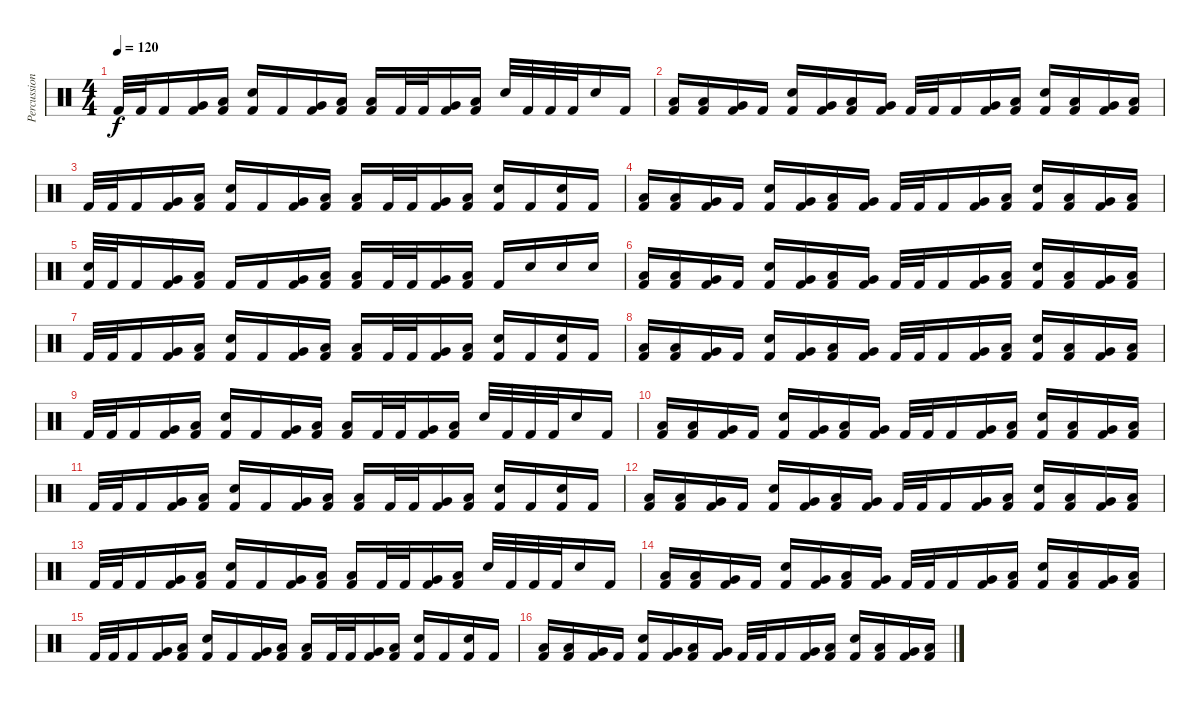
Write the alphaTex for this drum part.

\track ("Percussion" "Percussion") {instrument percussion}
\staff {score}
\articulation defaults
\ts (4 4)
\tempo 120
\clef neutral
\ks c "Kick (hit) 2".32{dy f} "Kick (hit) 2".32 "Kick (hit) 2".16
("Very Low Tom (hit)" "Kick (hit) 2").16 ("Low Floor Tom (hit)" "Kick (hit) 2").16 ("Electric Snare (hit)" "Kick (hit) 2").16 "Kick (hit) 2".16 ("Very Low Tom (hit)" "Kick (hit) 2").16 ("Low Tom (hit)" "Kick (hit) 2").16 ("Low Floor Tom (hit)" "Kick (hit) 2").16 "Kick (hit) 2".32 "Kick (hit) 2".32 ("Very Low Tom (hit)" "Kick (hit) 2").16 ("Low Floor Tom (hit)" "Kick (hit) 2").16 "Electric Snare (hit)".32 "Kick (hit) 2".32 "Kick (hit) 2".32 "Kick (hit) 2".32 "Electric Snare (hit)".16 "Kick (hit) 2".16 |
("Low Tom (hit)" "Kick (hit) 2").16 ("Low Floor Tom (hit)" "Kick (hit) 2").16 ("Very Low Tom (hit)" "Kick (hit) 2").16 "Kick (hit) 2".16 ("Electric Snare (hit)" "Kick (hit) 2").16 ("Very Low Tom (hit)" "Kick (hit) 2").16 ("Low Tom (hit)" "Kick (hit) 2").16 ("Very Low Tom (hit)" "Kick (hit) 2").16 "Kick (hit) 2".32 "Kick (hit) 2".32 "Kick (hit) 2".16 ("Very Low Tom (hit)" "Kick (hit) 2").16 ("Low Floor Tom (hit)" "Kick (hit) 2").16 ("Electric Snare (hit)" "Kick (hit) 2").16 ("Low Floor Tom (hit)" "Kick (hit) 2").16 ("Very Low Tom (hit)" "Kick (hit) 2").16 ("Low Floor Tom (hit)" "Kick (hit) 2").16 |
"Kick (hit) 2".32 "Kick (hit) 2".32 "Kick (hit) 2".16 ("Very Low Tom (hit)" "Kick (hit) 2").16 ("Low Floor Tom (hit)" "Kick (hit) 2").16 ("Electric Snare (hit)" "Kick (hit) 2").16 "Kick (hit) 2".16 ("Very Low Tom (hit)" "Kick (hit) 2").16 ("Low Tom (hit)" "Kick (hit) 2").16 ("Low Floor Tom (hit)" "Kick (hit) 2").16 "Kick (hit) 2".32 "Kick (hit) 2".32 ("Very Low Tom (hit)" "Kick (hit) 2").16 ("Low Floor Tom (hit)" "Kick (hit) 2").16 ("Electric Snare (hit)" "Kick (hit) 2").16 "Kick (hit) 2".16 ("Electric Snare (hit)" "Kick (hit) 2").16 "Kick (hit) 2".16 |
("Low Tom (hit)" "Kick (hit) 2").16 ("Low Floor Tom (hit)" "Kick (hit) 2").16 ("Very Low Tom (hit)" "Kick (hit) 2").16 "Kick (hit) 2".16 ("Electric Snare (hit)" "Kick (hit) 2").16 ("Very Low Tom (hit)" "Kick (hit) 2").16 ("Low Tom (hit)" "Kick (hit) 2").16 ("Very Low Tom (hit)" "Kick (hit) 2").16 "Kick (hit) 2".32 "Kick (hit) 2".32 "Kick (hit) 2".16 ("Very Low Tom (hit)" "Kick (hit) 2").16 ("Low Floor Tom (hit)" "Kick (hit) 2").16 ("Electric Snare (hit)" "Kick (hit) 2").16 ("Low Floor Tom (hit)" "Kick (hit) 2").16 ("Very Low Tom (hit)" "Kick (hit) 2").16 ("Low Floor Tom (hit)" "Kick (hit) 2").16 |
("Electric Snare (hit)" "Kick (hit) 2").32 "Kick (hit) 2".32 "Kick (hit) 2".16 ("Very Low Tom (hit)" "Kick (hit) 2").16 ("Low Floor Tom (hit)" "Kick (hit) 2").16 "Kick (hit) 2".16 "Kick (hit) 2".16 ("Very Low Tom (hit)" "Kick (hit) 2").16 ("Low Tom (hit)" "Kick (hit) 2").16 ("Low Floor Tom (hit)" "Kick (hit) 2").16 "Kick (hit) 2".32 "Kick (hit) 2".32 ("Very Low Tom (hit)" "Kick (hit) 2").16 ("Low Floor Tom (hit)" "Kick (hit) 2").16 "Kick (hit) 2".16 "Electric Snare (hit)".16 "Electric Snare (hit)".16 "Electric Snare (hit)".16 |
("Low Tom (hit)" "Kick (hit) 2").16 ("Low Floor Tom (hit)" "Kick (hit) 2").16 ("Very Low Tom (hit)" "Kick (hit) 2").16 "Kick (hit) 2".16 ("Electric Snare (hit)" "Kick (hit) 2").16 ("Very Low Tom (hit)" "Kick (hit) 2").16 ("Low Tom (hit)" "Kick (hit) 2").16 ("Very Low Tom (hit)" "Kick (hit) 2").16 "Kick (hit) 2".32 "Kick (hit) 2".32 "Kick (hit) 2".16 ("Very Low Tom (hit)" "Kick (hit) 2").16 ("Low Floor Tom (hit)" "Kick (hit) 2").16 ("Electric Snare (hit)" "Kick (hit) 2").16 ("Low Floor Tom (hit)" "Kick (hit) 2").16 ("Very Low Tom (hit)" "Kick (hit) 2").16 ("Low Floor Tom (hit)" "Kick (hit) 2").16 |
"Kick (hit) 2".32 "Kick (hit) 2".32 "Kick (hit) 2".16 ("Very Low Tom (hit)" "Kick (hit) 2").16 ("Low Floor Tom (hit)" "Kick (hit) 2").16 ("Electric Snare (hit)" "Kick (hit) 2").16 "Kick (hit) 2".16 ("Very Low Tom (hit)" "Kick (hit) 2").16 ("Low Tom (hit)" "Kick (hit) 2").16 ("Low Floor Tom (hit)" "Kick (hit) 2").16 "Kick (hit) 2".32 "Kick (hit) 2".32 ("Very Low Tom (hit)" "Kick (hit) 2").16 ("Low Floor Tom (hit)" "Kick (hit) 2").16 ("Electric Snare (hit)" "Kick (hit) 2").16 "Kick (hit) 2".16 ("Electric Snare (hit)" "Kick (hit) 2").16 "Kick (hit) 2".16 |
("Low Tom (hit)" "Kick (hit) 2").16 ("Low Floor Tom (hit)" "Kick (hit) 2").16 ("Very Low Tom (hit)" "Kick (hit) 2").16 "Kick (hit) 2".16 ("Electric Snare (hit)" "Kick (hit) 2").16 ("Very Low Tom (hit)" "Kick (hit) 2").16 ("Low Tom (hit)" "Kick (hit) 2").16 ("Very Low Tom (hit)" "Kick (hit) 2").16 "Kick (hit) 2".32 "Kick (hit) 2".32 "Kick (hit) 2".16 ("Very Low Tom (hit)" "Kick (hit) 2").16 ("Low Floor Tom (hit)" "Kick (hit) 2").16 ("Electric Snare (hit)" "Kick (hit) 2").16 ("Low Floor Tom (hit)" "Kick (hit) 2").16 ("Very Low Tom (hit)" "Kick (hit) 2").16 ("Low Floor Tom (hit)" "Kick (hit) 2").16 |
"Kick (hit) 2".32 "Kick (hit) 2".32 "Kick (hit) 2".16 ("Very Low Tom (hit)" "Kick (hit) 2").16 ("Low Floor Tom (hit)" "Kick (hit) 2").16 ("Electric Snare (hit)" "Kick (hit) 2").16 "Kick (hit) 2".16 ("Very Low Tom (hit)" "Kick (hit) 2").16 ("Low Tom (hit)" "Kick (hit) 2").16 ("Low Floor Tom (hit)" "Kick (hit) 2").16 "Kick (hit) 2".32 "Kick (hit) 2".32 ("Very Low Tom (hit)" "Kick (hit) 2").16 ("Low Floor Tom (hit)" "Kick (hit) 2").16 "Electric Snare (hit)".32 "Kick (hit) 2".32 "Kick (hit) 2".32 "Kick (hit) 2".32 "Electric Snare (hit)".16 "Kick (hit) 2".16 |
("Low Tom (hit)" "Kick (hit) 2").16 ("Low Floor Tom (hit)" "Kick (hit) 2").16 ("Very Low Tom (hit)" "Kick (hit) 2").16 "Kick (hit) 2".16 ("Electric Snare (hit)" "Kick (hit) 2").16 ("Very Low Tom (hit)" "Kick (hit) 2").16 ("Low Tom (hit)" "Kick (hit) 2").16 ("Very Low Tom (hit)" "Kick (hit) 2").16 "Kick (hit) 2".32 "Kick (hit) 2".32 "Kick (hit) 2".16 ("Very Low Tom (hit)" "Kick (hit) 2").16 ("Low Floor Tom (hit)" "Kick (hit) 2").16 ("Electric Snare (hit)" "Kick (hit) 2").16 ("Low Floor Tom (hit)" "Kick (hit) 2").16 ("Very Low Tom (hit)" "Kick (hit) 2").16 ("Low Floor Tom (hit)" "Kick (hit) 2").16 |
"Kick (hit) 2".32 "Kick (hit) 2".32 "Kick (hit) 2".16 ("Very Low Tom (hit)" "Kick (hit) 2").16 ("Low Floor Tom (hit)" "Kick (hit) 2").16 ("Electric Snare (hit)" "Kick (hit) 2").16 "Kick (hit) 2".16 ("Very Low Tom (hit)" "Kick (hit) 2").16 ("Low Tom (hit)" "Kick (hit) 2").16 ("Low Floor Tom (hit)" "Kick (hit) 2").16 "Kick (hit) 2".32 "Kick (hit) 2".32 ("Very Low Tom (hit)" "Kick (hit) 2").16 ("Low Floor Tom (hit)" "Kick (hit) 2").16 ("Electric Snare (hit)" "Kick (hit) 2").16 "Kick (hit) 2".16 ("Electric Snare (hit)" "Kick (hit) 2").16 "Kick (hit) 2".16 |
("Low Tom (hit)" "Kick (hit) 2").16 ("Low Floor Tom (hit)" "Kick (hit) 2").16 ("Very Low Tom (hit)" "Kick (hit) 2").16 "Kick (hit) 2".16 ("Electric Snare (hit)" "Kick (hit) 2").16 ("Very Low Tom (hit)" "Kick (hit) 2").16 ("Low Tom (hit)" "Kick (hit) 2").16 ("Very Low Tom (hit)" "Kick (hit) 2").16 "Kick (hit) 2".32 "Kick (hit) 2".32 "Kick (hit) 2".16 ("Very Low Tom (hit)" "Kick (hit) 2").16 ("Low Floor Tom (hit)" "Kick (hit) 2").16 ("Electric Snare (hit)" "Kick (hit) 2").16 ("Low Floor Tom (hit)" "Kick (hit) 2").16 ("Very Low Tom (hit)" "Kick (hit) 2").16 ("Low Floor Tom (hit)" "Kick (hit) 2").16 |
"Kick (hit) 2".32 "Kick (hit) 2".32 "Kick (hit) 2".16 ("Very Low Tom (hit)" "Kick (hit) 2").16 ("Low Floor Tom (hit)" "Kick (hit) 2").16 ("Electric Snare (hit)" "Kick (hit) 2").16 "Kick (hit) 2".16 ("Very Low Tom (hit)" "Kick (hit) 2").16 ("Low Tom (hit)" "Kick (hit) 2").16 ("Low Floor Tom (hit)" "Kick (hit) 2").16 "Kick (hit) 2".32 "Kick (hit) 2".32 ("Very Low Tom (hit)" "Kick (hit) 2").16 ("Low Floor Tom (hit)" "Kick (hit) 2").16 "Electric Snare (hit)".32 "Kick (hit) 2".32 "Kick (hit) 2".32 "Kick (hit) 2".32 "Electric Snare (hit)".16 "Kick (hit) 2".16 |
("Low Tom (hit)" "Kick (hit) 2").16 ("Low Floor Tom (hit)" "Kick (hit) 2").16 ("Very Low Tom (hit)" "Kick (hit) 2").16 "Kick (hit) 2".16 ("Electric Snare (hit)" "Kick (hit) 2").16 ("Very Low Tom (hit)" "Kick (hit) 2").16 ("Low Tom (hit)" "Kick (hit) 2").16 ("Very Low Tom (hit)" "Kick (hit) 2").16 "Kick (hit) 2".32 "Kick (hit) 2".32 "Kick (hit) 2".16 ("Very Low Tom (hit)" "Kick (hit) 2").16 ("Low Floor Tom (hit)" "Kick (hit) 2").16 ("Electric Snare (hit)" "Kick (hit) 2").16 ("Low Floor Tom (hit)" "Kick (hit) 2").16 ("Very Low Tom (hit)" "Kick (hit) 2").16 ("Low Floor Tom (hit)" "Kick (hit) 2").16 |
"Kick (hit) 2".32 "Kick (hit) 2".32 "Kick (hit) 2".16 ("Very Low Tom (hit)" "Kick (hit) 2").16 ("Low Floor Tom (hit)" "Kick (hit) 2").16 ("Electric Snare (hit)" "Kick (hit) 2").16 "Kick (hit) 2".16 ("Very Low Tom (hit)" "Kick (hit) 2").16 ("Low Tom (hit)" "Kick (hit) 2").16 ("Low Floor Tom (hit)" "Kick (hit) 2").16 "Kick (hit) 2".32 "Kick (hit) 2".32 ("Very Low Tom (hit)" "Kick (hit) 2").16 ("Low Floor Tom (hit)" "Kick (hit) 2").16 ("Electric Snare (hit)" "Kick (hit) 2").16 "Kick (hit) 2".16 ("Electric Snare (hit)" "Kick (hit) 2").16 "Kick (hit) 2".16 |
("Low Tom (hit)" "Kick (hit) 2").16 ("Low Floor Tom (hit)" "Kick (hit) 2").16 ("Very Low Tom (hit)" "Kick (hit) 2").16 "Kick (hit) 2".16 ("Electric Snare (hit)" "Kick (hit) 2").16 ("Very Low Tom (hit)" "Kick (hit) 2").16 ("Low Tom (hit)" "Kick (hit) 2").16 ("Very Low Tom (hit)" "Kick (hit) 2").16 "Kick (hit) 2".32 "Kick (hit) 2".32 "Kick (hit) 2".16 ("Very Low Tom (hit)" "Kick (hit) 2").16 ("Low Floor Tom (hit)" "Kick (hit) 2").16 ("Electric Snare (hit)" "Kick (hit) 2").16 ("Low Floor Tom (hit)" "Kick (hit) 2").16 ("Very Low Tom (hit)" "Kick (hit) 2").16 ("Low Floor Tom (hit)" "Kick (hit) 2").16
